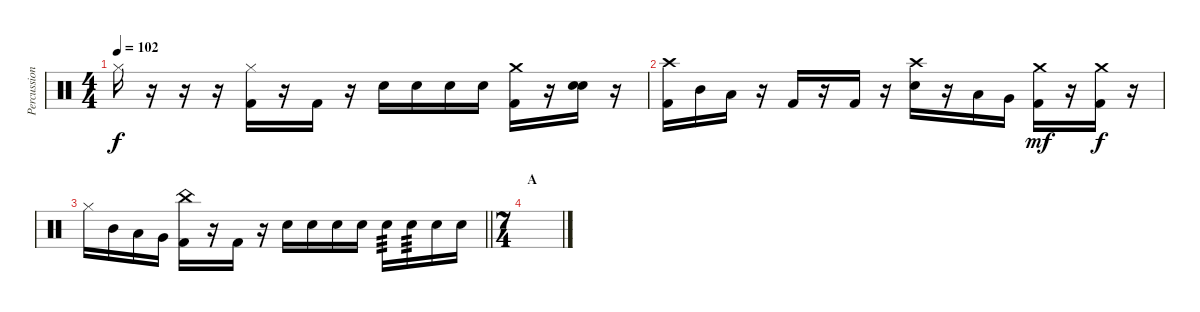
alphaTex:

\track ("Percussion" "Percussion") {instrument percussion}
\staff {score}
\articulation defaults
\ts (4 4)
\tempo 102
\clef neutral
\ks c "Hi-Hat (closed)".16{dy f}
r.16 r.16 r.16 ("Hi-Hat (closed)" "Kick (hit) 2").16 r.16 "Kick (hit) 2".16 r.16 "Snare (hit) 2".16 "Snare (hit) 2".16 "Snare (hit) 2".16 "Snare (hit) 2".16 ("Crash medium (hit)" "Kick (hit) 2").16 r.16 ("Snare (hit)" "Snare (hit) 2").16 r.16 |
("Crash high (hit)" "Kick (hit) 2").16 "Mid Tom (hit)".16 "Low Tom (hit)".16 r.16 "Kick (hit) 2".16 r.16 "Kick (hit) 2".16 r.16 ("Crash high (hit)" "Snare (hit) 2").16 r.16 "Low Tom (hit)".16 "Very Low Tom (hit)".16 ("Crash medium (hit)" "Kick (hit) 2").16{dy mf} r.16 ("Crash medium (hit)" "Kick (hit) 2").16{dy f} r.16 |
\barLineRight lightlight "Hi-Hat (closed)".16 "Mid Tom (hit)".16 "Low Tom (hit)".16 "Very Low Tom (hit)".16
("China (hit)" "Kick (hit) 2").16 r.16 "Kick (hit) 2".16 r.16 "Snare (hit) 2".16 "Snare (hit) 2".16 "Snare (hit) 2".16 "Snare (hit) 2".16 "Snare (hit) 2".16{tp 3} "Snare (hit) 2".16{tp 3} "Snare (hit) 2".16 "Snare (hit) 2".16 |
\ts (7 4)
\section ("" "A")
